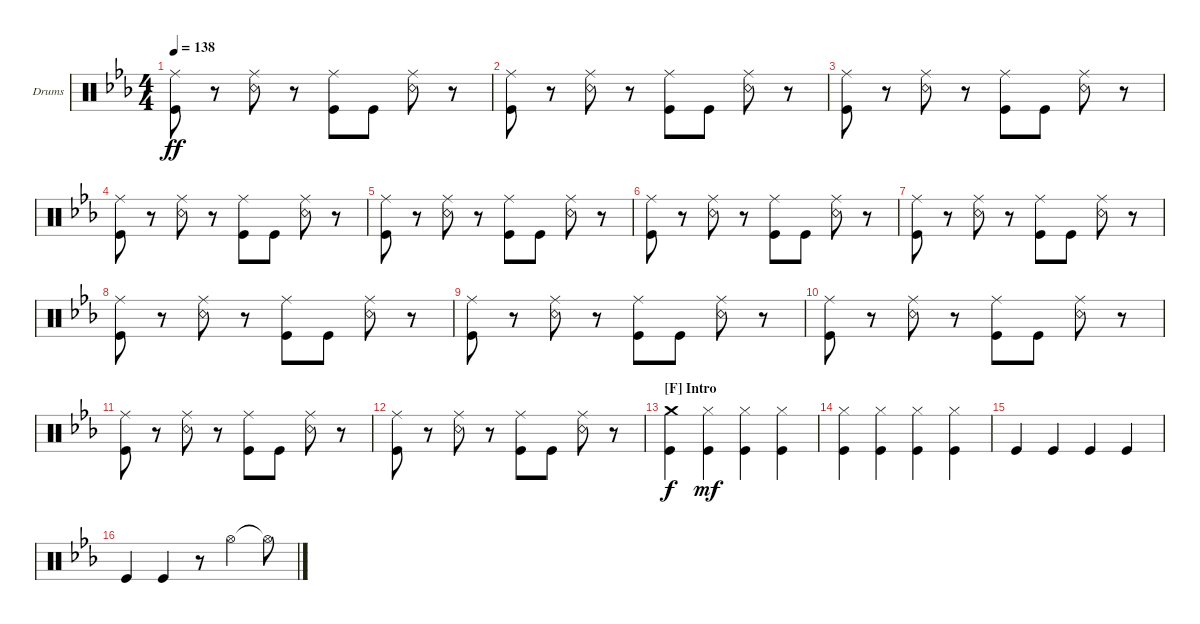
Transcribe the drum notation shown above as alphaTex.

\defaultSystemsLayout 4
\bracketExtendMode groupsimilarinstruments
\firstSystemTrackNameOrientation horizontal
\otherSystemsTrackNameOrientation horizontal
\track ("Drums" "Drums") {instrument percussion}
\staff {score}
\articulation defaults
\ts (4 4)
\tempo 138
\clef neutral
\ks eb
("Kick (hit)" "Ride (middle)").8{dy ff} r.8 ("Ride (middle)" "Snare (rim shot)").8 r.8 ("Ride (middle)" "Kick (hit)").8 "Kick (hit)".8 ("Ride (middle)" "Snare (rim shot)").8 r.8 |
("Kick (hit)" "Ride (middle)").8 r.8 ("Ride (middle)" "Snare (rim shot)").8 r.8 ("Ride (middle)" "Kick (hit)").8 "Kick (hit)".8 ("Ride (middle)" "Snare (rim shot)").8 r.8 |
("Kick (hit)" "Ride (middle)").8 r.8 ("Ride (middle)" "Snare (rim shot)").8 r.8 ("Ride (middle)" "Kick (hit)").8 "Kick (hit)".8 ("Ride (middle)" "Snare (rim shot)").8 r.8 |
("Kick (hit)" "Ride (middle)").8 r.8 ("Ride (middle)" "Snare (rim shot)").8 r.8 ("Ride (middle)" "Kick (hit)").8 "Kick (hit)".8 ("Ride (middle)" "Snare (rim shot)").8 r.8 |
("Kick (hit)" "Ride (middle)").8 r.8 ("Ride (middle)" "Snare (rim shot)").8 r.8 ("Ride (middle)" "Kick (hit)").8 "Kick (hit)".8 ("Ride (middle)" "Snare (rim shot)").8 r.8 |
("Kick (hit)" "Ride (middle)").8 r.8 ("Ride (middle)" "Snare (rim shot)").8 r.8 ("Ride (middle)" "Kick (hit)").8 "Kick (hit)".8 ("Ride (middle)" "Snare (rim shot)").8 r.8 |
("Kick (hit)" "Ride (middle)").8 r.8 ("Ride (middle)" "Snare (rim shot)").8 r.8 ("Ride (middle)" "Kick (hit)").8 "Kick (hit)".8 ("Ride (middle)" "Snare (rim shot)").8 r.8 |
("Kick (hit)" "Ride (middle)").8 r.8 ("Ride (middle)" "Snare (rim shot)").8 r.8 ("Ride (middle)" "Kick (hit)").8 "Kick (hit)".8 ("Ride (middle)" "Snare (rim shot)").8 r.8 |
("Kick (hit)" "Ride (middle)").8 r.8 ("Ride (middle)" "Snare (rim shot)").8 r.8 ("Ride (middle)" "Kick (hit)").8 "Kick (hit)".8 ("Ride (middle)" "Snare (rim shot)").8 r.8 |
("Kick (hit)" "Ride (middle)").8 r.8 ("Ride (middle)" "Snare (rim shot)").8 r.8 ("Ride (middle)" "Kick (hit)").8 "Kick (hit)".8 ("Ride (middle)" "Snare (rim shot)").8 r.8 |
("Kick (hit)" "Ride (middle)").8 r.8 ("Ride (middle)" "Snare (rim shot)").8 r.8 ("Ride (middle)" "Kick (hit)").8 "Kick (hit)".8 ("Ride (middle)" "Snare (rim shot)").8 r.8 |
("Kick (hit)" "Ride (middle)").8 r.8 ("Ride (middle)" "Snare (rim shot)").8 r.8 ("Ride (middle)" "Kick (hit)").8 "Kick (hit)".8 ("Ride (middle)" "Snare (rim shot)").8 r.8 |
\section ("F" "Intro")
("Kick (hit)" "Crash medium (hit)").4{dy f} ("Kick (hit)" "Hi-Hat (closed)").4{dy mf} ("Kick (hit)" "Hi-Hat (closed)").4 ("Kick (hit)" "Hi-Hat (closed)").4 |
("Kick (hit)" "Hi-Hat (closed)").4 ("Kick (hit)" "Hi-Hat (closed)").4 ("Kick (hit)" "Hi-Hat (closed)").4 ("Kick (hit)" "Hi-Hat (closed)").4 |
"Kick (hit)".4 "Kick (hit)".4 "Kick (hit)".4 "Kick (hit)".4 |
"Kick (hit)".4 "Kick (hit)".4 r.8 "Hi-Hat (open)".4 "Hi-Hat (open)"{t}.8
